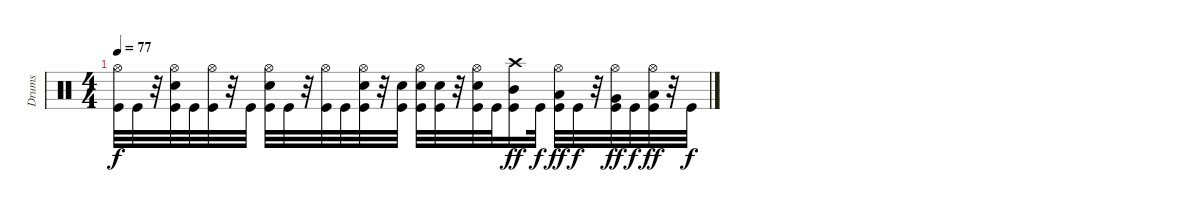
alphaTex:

\track ("Drums" "Drums") {instrument percussion}
\staff {score}
\articulation defaults
\ts (4 4)
\tempo 77
\clef neutral
\ks c
("Hi-Hat (open)" "Kick (hit)").32{dy f volume 5} "Kick (hit)".32 r.32 ("Hi-Hat (open)" "Snare (hit) 2" "Kick (hit)").32{volume 5} "Kick (hit)".32{volume 4} ("Hi-Hat (open)" "Kick (hit)").32 r.32 "Kick (hit)".32{volume 4} ("Hi-Hat (open)" "Snare (hit) 2" "Kick (hit)").32{volume 4} "Kick (hit)".32 r.32 ("Hi-Hat (open)" "Kick (hit)").32{volume 4} "Kick (hit)".32{volume 4} ("Hi-Hat (open)" "Snare (hit) 2" "Kick (hit)").32 r.32 ("Snare (hit) 2" "Kick (hit)").32{volume 4} ("Hi-Hat (open)" "Snare (hit) 2" "Kick (hit)").32{volume 4} ("Snare (hit) 2" "Kick (hit)").32 r.32 ("Hi-Hat (open)" "Snare (hit) 2" "Kick (hit)").32{volume 3} "Kick (hit)".32{volume 3} ("Crash high (hit)" "Mid Tom (hit)" "Kick (hit)").16{dy ff} "Kick (hit)".32{dy f volume 3} ("Hi-Hat (open)" "Low Tom (hit)" "Kick (hit)").32{dy ff volume 3} "Kick (hit)".32{dy f} r.32 ("Hi-Hat (open)" "Very Low Tom (hit)" "Kick (hit)").32{dy ff volume 2} "Kick (hit)".32{dy f volume 2} ("Hi-Hat (open)" "Low Floor Tom (hit)" "Kick (hit)").32{dy ff} r.32 "Kick (hit)".32{dy f volume 2}
